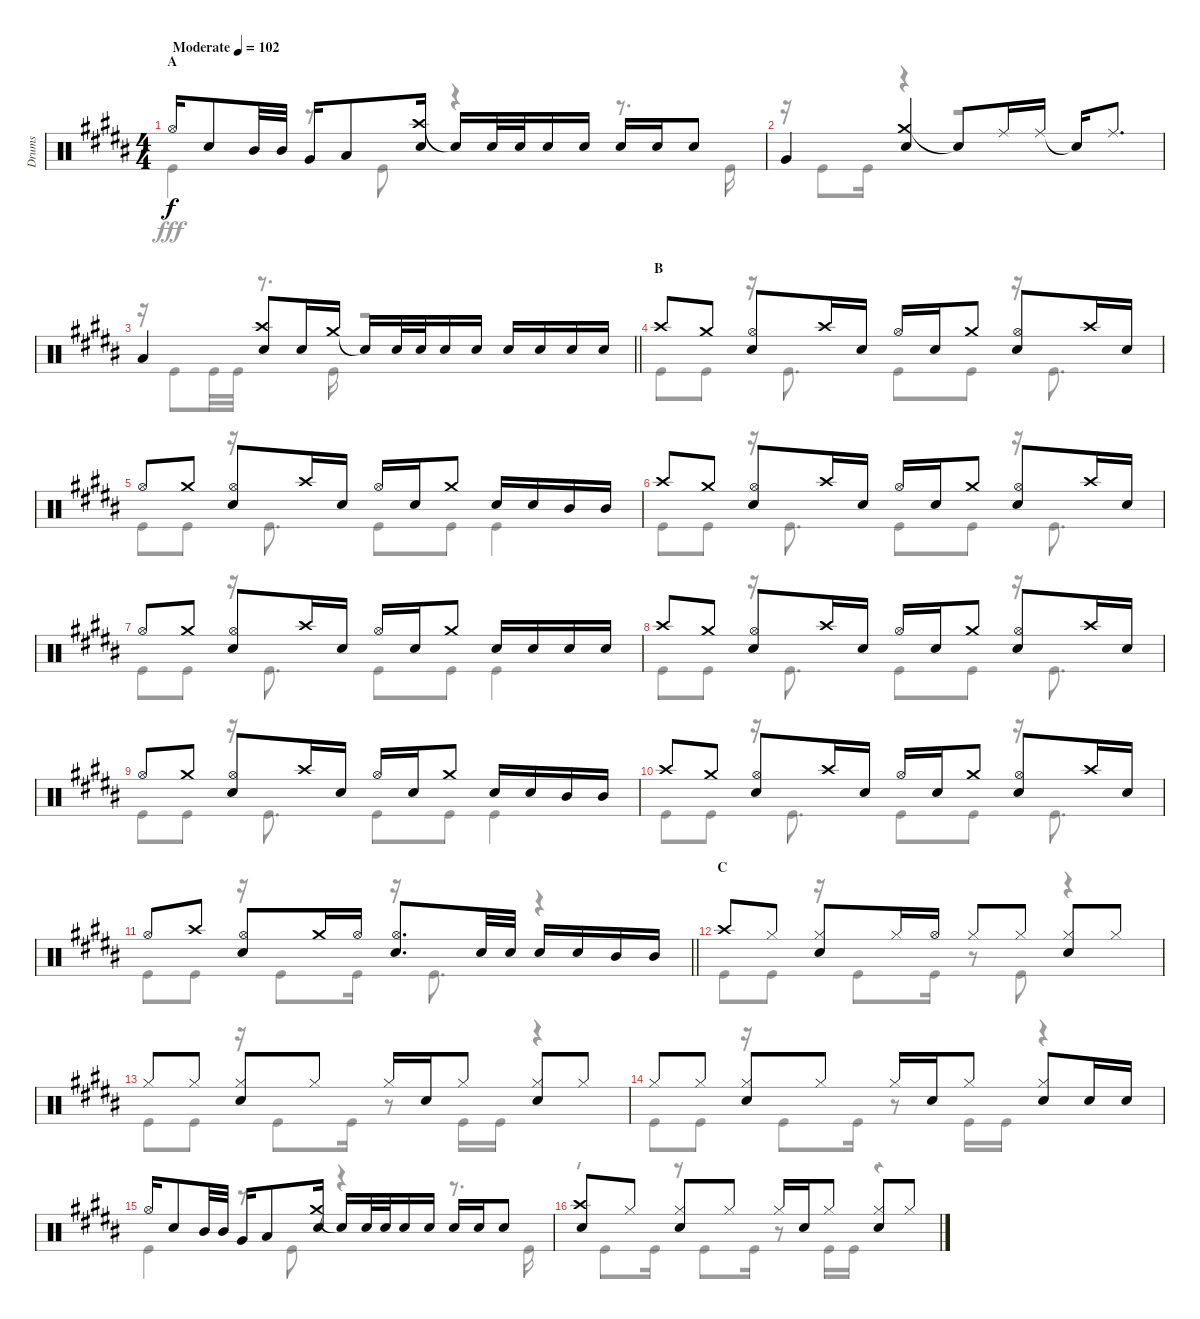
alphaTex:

\track ("Drums" "Drums") {instrument percussion}
\staff {score}
\articulation defaults
\voice
\ts (4 4)
\section ("" "A")
\tempo (102 "Moderate")
\clef neutral
\ks b "Hi-Hat (open)".16{dy f} "Snare (hit) 2".8 "Mid Tom (hit)".32 "Mid Tom (hit)".32 "Very Low Tom (hit)".16 "Low Tom (hit)".8
("Crash high (hit)" "Snare (hit) 2").16 "Snare (hit)"{t}.16 "Snare (hit) 2".32 "Snare (hit) 2".32 "Snare (hit) 2".16 "Snare (hit) 2".16 "Snare (hit) 2".16 "Snare (hit) 2".16 "Snare (hit) 2".8 |
"Very Low Tom (hit)".4 ("Crash medium (hit)" "Snare (hit) 2").4 "Snare (hit)"{t}.8 "Ride (middle)".16 "Ride (middle)".16 "Snare (hit)"{t}.16 "Ride (middle)".8{d} |
\barLineRight lightlight "Low Tom (hit)".4
("Crash high (hit)" "Snare (hit) 2").8 "Snare (hit) 2".16 "Crash medium (hit)".16 "Snare (hit)"{t}.16 "Snare (hit) 2".32 "Snare (hit) 2".32 "Snare (hit) 2".16 "Snare (hit) 2".16 "Snare (hit) 2".16 "Snare (hit) 2".16 "Snare (hit) 2".16 "Snare (hit) 2".16 |
\section ("" "B")
"Crash high (hit)".8 "Crash medium (hit)".8 ("Hi-Hat (open)" "Snare (hit) 2").8 "Crash high (hit)".16 "Snare (hit) 2".16 "Hi-Hat (open)".16 "Snare (hit) 2".16 "Crash medium (hit)".8 ("Hi-Hat (open)" "Snare (hit) 2").8 "Crash high (hit)".16 "Snare (hit) 2".16 |
"Hi-Hat (open)".8 "Crash medium (hit)".8 ("Hi-Hat (open)" "Snare (hit) 2").8 "Crash high (hit)".16 "Snare (hit) 2".16 "Hi-Hat (open)".16 "Snare (hit) 2".16 "Crash medium (hit)".8 "Snare (hit) 2".16 "Snare (hit) 2".16 "Mid Tom (hit)".16 "Mid Tom (hit)".16 |
"Crash high (hit)".8 "Crash medium (hit)".8 ("Hi-Hat (open)" "Snare (hit) 2").8 "Crash high (hit)".16 "Snare (hit) 2".16 "Hi-Hat (open)".16 "Snare (hit) 2".16 "Crash medium (hit)".8 ("Hi-Hat (open)" "Snare (hit) 2").8 "Crash high (hit)".16 "Snare (hit) 2".16 |
"Hi-Hat (open)".8 "Crash medium (hit)".8 ("Hi-Hat (open)" "Snare (hit) 2").8 "Crash high (hit)".16 "Snare (hit) 2".16 "Hi-Hat (open)".16 "Snare (hit) 2".16 "Crash medium (hit)".8 "Snare (hit) 2".16 "Snare (hit) 2".16 "Snare (hit) 2".16 "Snare (hit) 2".16 |
"Crash high (hit)".8 "Crash medium (hit)".8 ("Hi-Hat (open)" "Snare (hit) 2").8 "Crash high (hit)".16 "Snare (hit) 2".16 "Hi-Hat (open)".16 "Snare (hit) 2".16 "Crash medium (hit)".8 ("Hi-Hat (open)" "Snare (hit) 2").8 "Crash high (hit)".16 "Snare (hit) 2".16 |
"Hi-Hat (open)".8 "Crash medium (hit)".8 ("Hi-Hat (open)" "Snare (hit) 2").8 "Crash high (hit)".16 "Snare (hit) 2".16 "Hi-Hat (open)".16 "Snare (hit) 2".16 "Crash medium (hit)".8 "Snare (hit) 2".16 "Snare (hit) 2".16 "Mid Tom (hit)".16 "Mid Tom (hit)".16 |
"Crash high (hit)".8 "Crash medium (hit)".8 ("Hi-Hat (open)" "Snare (hit) 2").8 "Crash high (hit)".16 "Snare (hit) 2".16 "Hi-Hat (open)".16 "Snare (hit) 2".16 "Crash medium (hit)".8 ("Hi-Hat (open)" "Snare (hit) 2").8 "Crash high (hit)".16 "Snare (hit) 2".16 |
\barLineRight lightlight "Hi-Hat (open)".8 "Crash high (hit)".8
("Hi-Hat (open)" "Snare (hit) 2").8 "Crash medium (hit)".16 "Hi-Hat (open)".16 ("Hi-Hat (open)" "Snare (hit) 2").8{d} "Snare (hit) 2".32 "Snare (hit) 2".32 "Snare (hit) 2".16 "Snare (hit) 2".16 "Mid Tom (hit)".16 "Mid Tom (hit)".16 |
\section ("" "C")
"Crash high (hit)".8 "Hi-Hat (closed)".8 ("Hi-Hat (closed)" "Snare (hit) 2").8 "Hi-Hat (closed)".16 "Hi-Hat (open)".16 "Hi-Hat (closed)".8 "Hi-Hat (closed)".8 ("Hi-Hat (closed)" "Snare (hit) 2").8 "Hi-Hat (closed)".8 |
"Hi-Hat (closed)".8 "Hi-Hat (closed)".8 ("Hi-Hat (closed)" "Snare (hit) 2").8 "Hi-Hat (closed)".8 "Hi-Hat (closed)".16 "Snare (hit) 2".16 "Hi-Hat (closed)".8 ("Hi-Hat (closed)" "Snare (hit) 2").8 "Hi-Hat (closed)".8 |
"Hi-Hat (closed)".8 "Hi-Hat (closed)".8 ("Hi-Hat (closed)" "Snare (hit) 2").8 "Hi-Hat (closed)".8 "Hi-Hat (closed)".16 "Snare (hit) 2".16 "Hi-Hat (closed)".8 ("Hi-Hat (closed)" "Snare (hit) 2").8 "Snare (hit) 2".16 "Snare (hit) 2".16 |
"Hi-Hat (open)".16 "Snare (hit) 2".8 "Mid Tom (hit)".32 "Mid Tom (hit)".32 "Very Low Tom (hit)".16 "Low Tom (hit)".8 ("Crash medium (hit)" "Snare (hit) 2").16 "Snare (hit)"{t}.16 "Snare (hit) 2".32 "Snare (hit) 2".32 "Snare (hit) 2".16 "Snare (hit) 2".16 "Snare (hit) 2".16 "Snare (hit) 2".16 "Snare (hit) 2".8 |
("Crash high (hit)" "Snare (hit) 2").8 "Hi-Hat (closed)".8 ("Hi-Hat (closed)" "Snare (hit) 2").8 "Hi-Hat (closed)".8 "Hi-Hat (closed)".16 "Snare (hit) 2".16 "Hi-Hat (closed)".8 ("Hi-Hat (closed)" "Snare (hit) 2").8 "Hi-Hat (closed)".8
\voice
\clef neutral
\ottava regular
\simile none
\ks b "Kick (hit)".4{dy fff}
r.8 "Kick (hit)".8 r.4 r.8{d} "Kick (hit)".16 |
r.16 "Kick (hit)".8 "Kick (hit)".16 r.4 r.2 |
\barLineRight lightlight
r.16 "Kick (hit)".8 "Kick (hit)".32 "Kick (hit)".32 r.8{d} "Kick (hit)".16 r.2 |
"Kick (hit)".8 "Kick (hit)".8 r.16 "Kick (hit)".8{d} "Kick (hit)".8 "Kick (hit)".8 r.16 "Kick (hit)".8{d} |
"Kick (hit)".8 "Kick (hit)".8 r.16 "Kick (hit)".8{d} "Kick (hit)".8 "Kick (hit)".8 "Kick (hit)".4 |
"Kick (hit)".8 "Kick (hit)".8 r.16 "Kick (hit)".8{d} "Kick (hit)".8 "Kick (hit)".8 r.16 "Kick (hit)".8{d} |
"Kick (hit)".8 "Kick (hit)".8 r.16 "Kick (hit)".8{d} "Kick (hit)".8 "Kick (hit)".8 "Kick (hit)".4 |
"Kick (hit)".8 "Kick (hit)".8 r.16 "Kick (hit)".8{d} "Kick (hit)".8 "Kick (hit)".8 r.16 "Kick (hit)".8{d} |
"Kick (hit)".8 "Kick (hit)".8 r.16 "Kick (hit)".8{d} "Kick (hit)".8 "Kick (hit)".8 "Kick (hit)".4 |
"Kick (hit)".8 "Kick (hit)".8 r.16 "Kick (hit)".8{d} "Kick (hit)".8 "Kick (hit)".8 r.16 "Kick (hit)".8{d} |
\barLineRight lightlight "Kick (hit)".8 "Kick (hit)".8
r.16 "Kick (hit)".8 "Kick (hit)".16 r.16 "Kick (hit)".8{d} r.4 |
"Kick (hit)".8 "Kick (hit)".8 r.16 "Kick (hit)".8 "Kick (hit)".16 r.8 "Kick (hit)".8 r.4 |
"Kick (hit)".8 "Kick (hit)".8 r.16 "Kick (hit)".8 "Kick (hit)".16 r.8 "Kick (hit)".16 "Kick (hit)".16 r.4 |
"Kick (hit)".8 "Kick (hit)".8 r.16 "Kick (hit)".8 "Kick (hit)".16 r.8 "Kick (hit)".16 "Kick (hit)".16 r.4 |
"Kick (hit)".4 r.8 "Kick (hit)".8 r.4 r.8{d} "Kick (hit)".16 |
r.16 "Kick (hit)".8 "Kick (hit)".16 r.16 "Kick (hit)".8 "Kick (hit)".16 r.8 "Kick (hit)".16 "Kick (hit)".16 r.4
